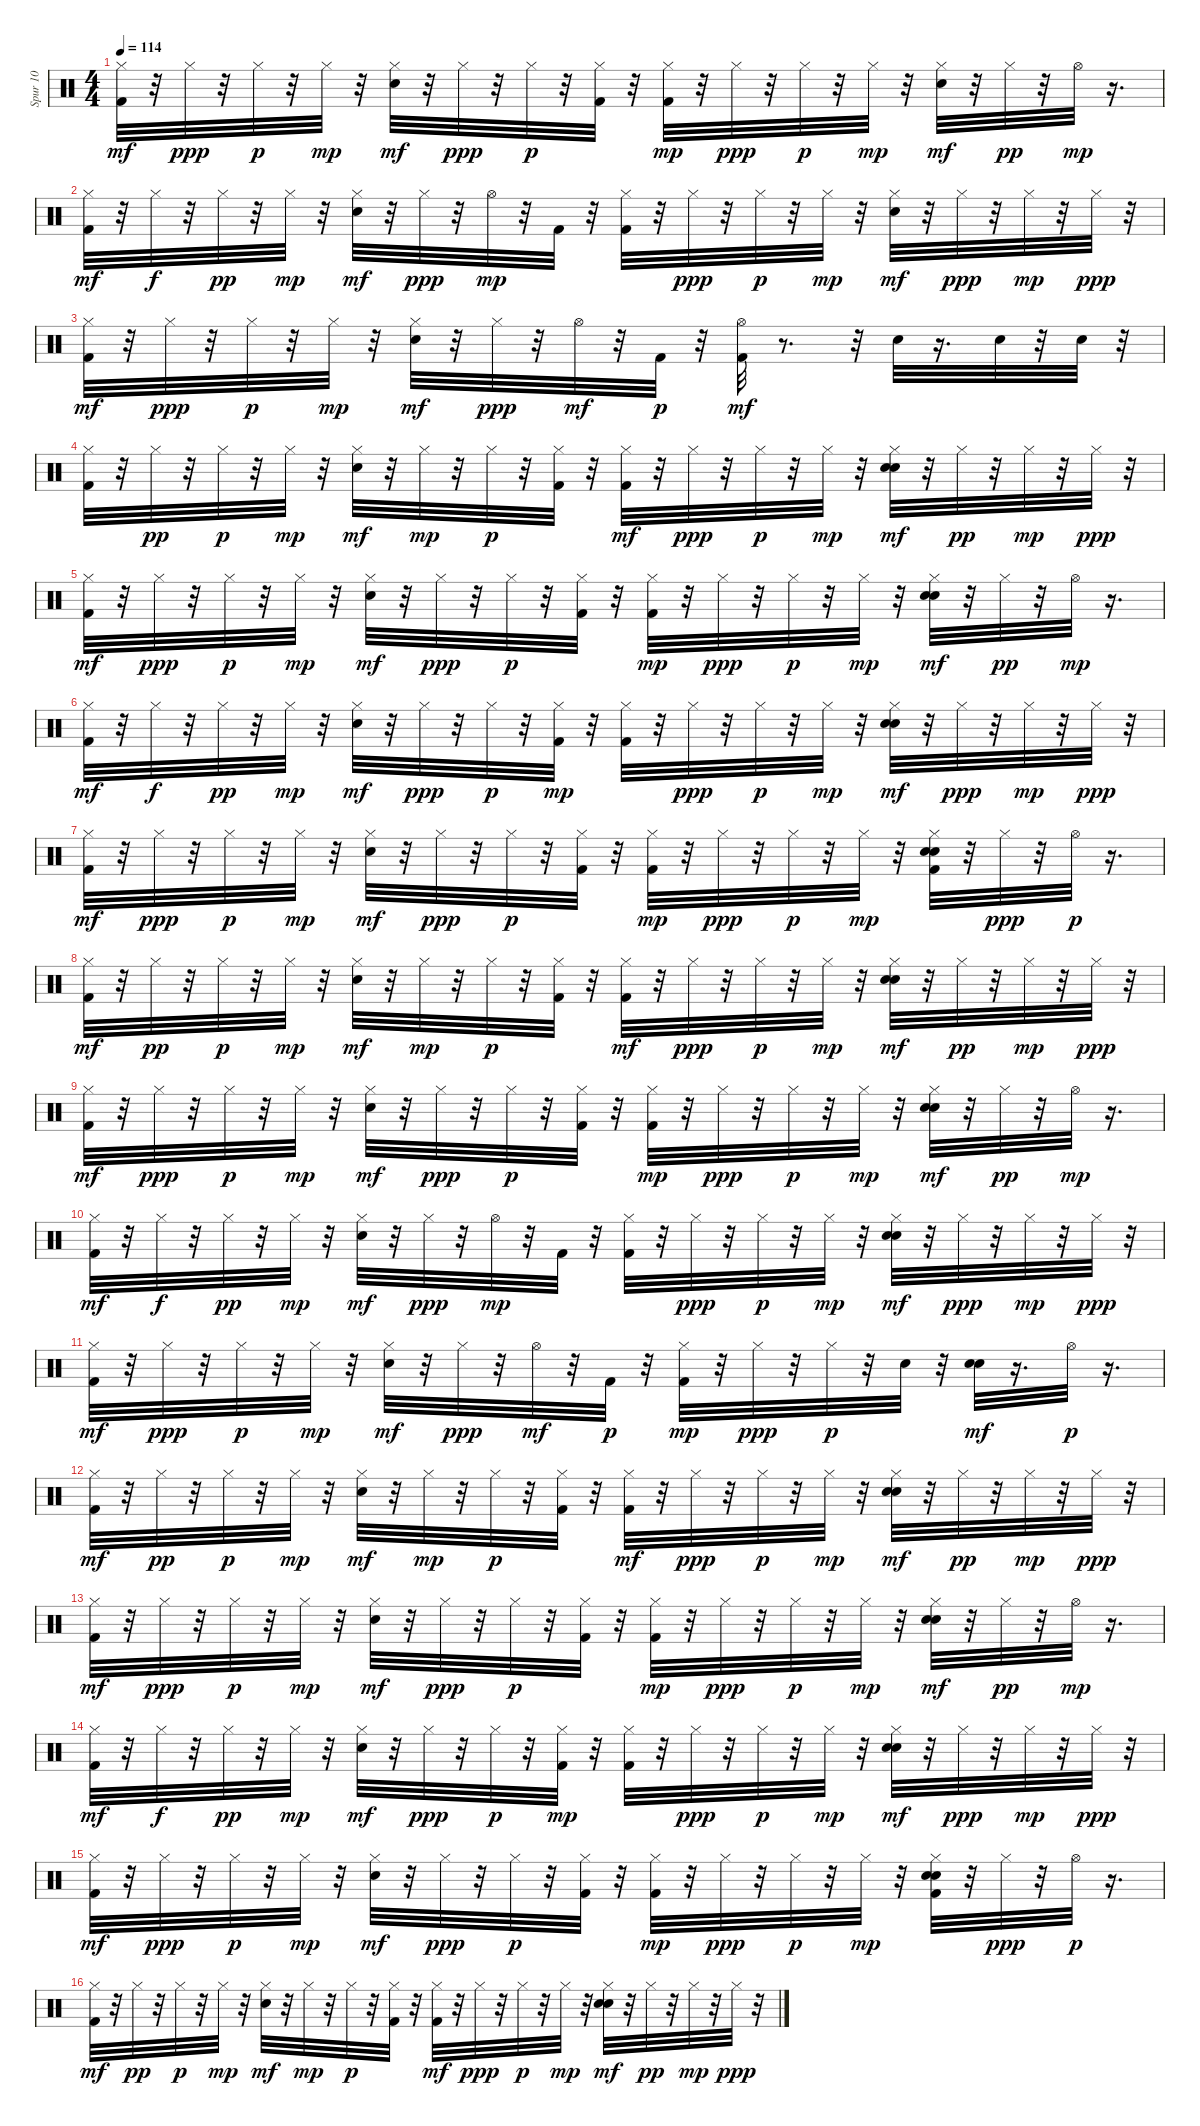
\track ("Spur 10" "Spur 10") {instrument percussion}
\staff {score}
\articulation defaults
\ts (4 4)
\tempo 114
\clef neutral
\ks c
("Hi-Hat (closed)" "Kick (hit) 2").32{dy mf} r.32 "Hi-Hat (closed)".32{dy ppp} r.32 "Hi-Hat (closed)".32{dy p} r.32 "Hi-Hat (closed)".32{dy mp} r.32 ("Hi-Hat (closed)" "Electric Snare (hit)").32{dy mf} r.32 "Hi-Hat (closed)".32{dy ppp} r.32 "Hi-Hat (closed)".32{dy p} r.32 ("Hi-Hat (closed)" "Kick (hit) 2").32 r.32 ("Hi-Hat (closed)" "Kick (hit) 2").32{dy mp} r.32 "Hi-Hat (closed)".32{dy ppp} r.32 "Hi-Hat (closed)".32{dy p} r.32 "Hi-Hat (closed)".32{dy mp} r.32 ("Hi-Hat (closed)" "Electric Snare (hit)").32{dy mf} r.32 "Hi-Hat (closed)".32{dy pp} r.32 "Hi-Hat (open)".32{dy mp} r.16{d} |
("Hi-Hat (closed)" "Kick (hit) 2").32{dy mf} r.32 "Hi-Hat (closed)".32{dy f} r.32 "Hi-Hat (closed)".32{dy pp} r.32 "Hi-Hat (closed)".32{dy mp} r.32 ("Hi-Hat (closed)" "Electric Snare (hit)").32{dy mf} r.32 "Hi-Hat (closed)".32{dy ppp} r.32 "Hi-Hat (open)".32{dy mp} r.32 "Kick (hit) 2".32 r.32 ("Hi-Hat (closed)" "Kick (hit) 2").32 r.32 "Hi-Hat (closed)".32{dy ppp} r.32 "Hi-Hat (closed)".32{dy p} r.32 "Hi-Hat (closed)".32{dy mp} r.32 ("Hi-Hat (closed)" "Electric Snare (hit)").32{dy mf} r.32 "Hi-Hat (closed)".32{dy ppp} r.32 "Hi-Hat (closed)".32{dy mp} r.32 "Hi-Hat (closed)".32{dy ppp} r.32 |
("Hi-Hat (closed)" "Kick (hit) 2").32{dy mf} r.32 "Hi-Hat (closed)".32{dy ppp} r.32 "Hi-Hat (closed)".32{dy p} r.32 "Hi-Hat (closed)".32{dy mp} r.32 ("Hi-Hat (closed)" "Electric Snare (hit)").32{dy mf} r.32 "Hi-Hat (closed)".32{dy ppp} r.32 "Hi-Hat (open)".32{dy mf} r.32 "Kick (hit) 2".32{dy p} r.32 ("Kick (hit) 2" "Hi-Hat (open)").32{dy mf} r.8{d} r.32 "Electric Snare (hit)".32 r.16{d} "Electric Snare (hit)".32 r.32 "Electric Snare (hit)".32 r.32 |
("Hi-Hat (closed)" "Kick (hit) 2").32 r.32 "Hi-Hat (closed)".32{dy pp} r.32 "Hi-Hat (closed)".32{dy p} r.32 "Hi-Hat (closed)".32{dy mp} r.32 ("Hi-Hat (closed)" "Electric Snare (hit)").32{dy mf} r.32 "Hi-Hat (closed)".32{dy mp} r.32 "Hi-Hat (closed)".32{dy p} r.32 ("Hi-Hat (closed)" "Kick (hit) 2").32 r.32 ("Hi-Hat (closed)" "Kick (hit) 2").32{dy mf} r.32 "Hi-Hat (closed)".32{dy ppp} r.32 "Hi-Hat (closed)".32{dy p} r.32 "Hi-Hat (closed)".32{dy mp} r.32 ("Hand Clap (hit)" "Hi-Hat (closed)" "Electric Snare (hit)").32{dy mf} r.32 "Hi-Hat (closed)".32{dy pp} r.32 "Hi-Hat (closed)".32{dy mp} r.32 "Hi-Hat (closed)".32{dy ppp} r.32 |
("Hi-Hat (closed)" "Kick (hit) 2").32{dy mf} r.32 "Hi-Hat (closed)".32{dy ppp} r.32 "Hi-Hat (closed)".32{dy p} r.32 "Hi-Hat (closed)".32{dy mp} r.32 ("Hi-Hat (closed)" "Electric Snare (hit)").32{dy mf} r.32 "Hi-Hat (closed)".32{dy ppp} r.32 "Hi-Hat (closed)".32{dy p} r.32 ("Hi-Hat (closed)" "Kick (hit) 2").32 r.32 ("Hi-Hat (closed)" "Kick (hit) 2").32{dy mp} r.32 "Hi-Hat (closed)".32{dy ppp} r.32 "Hi-Hat (closed)".32{dy p} r.32 "Hi-Hat (closed)".32{dy mp} r.32 ("Hand Clap (hit)" "Hi-Hat (closed)" "Electric Snare (hit)").32{dy mf} r.32 "Hi-Hat (closed)".32{dy pp} r.32 "Hi-Hat (open)".32{dy mp} r.16{d} |
("Hi-Hat (closed)" "Kick (hit) 2").32{dy mf} r.32 "Hi-Hat (closed)".32{dy f} r.32 "Hi-Hat (closed)".32{dy pp} r.32 "Hi-Hat (closed)".32{dy mp} r.32 ("Hi-Hat (closed)" "Electric Snare (hit)").32{dy mf} r.32 "Hi-Hat (closed)".32{dy ppp} r.32 "Hi-Hat (closed)".32{dy p} r.32 ("Hi-Hat (closed)" "Kick (hit) 2").32{dy mp} r.32 ("Hi-Hat (closed)" "Kick (hit) 2").32 r.32 "Hi-Hat (closed)".32{dy ppp} r.32 "Hi-Hat (closed)".32{dy p} r.32 "Hi-Hat (closed)".32{dy mp} r.32 ("Hand Clap (hit)" "Hi-Hat (closed)" "Electric Snare (hit)").32{dy mf} r.32 "Hi-Hat (closed)".32{dy ppp} r.32 "Hi-Hat (closed)".32{dy mp} r.32 "Hi-Hat (closed)".32{dy ppp} r.32 |
("Hi-Hat (closed)" "Kick (hit) 2").32{dy mf} r.32 "Hi-Hat (closed)".32{dy ppp} r.32 "Hi-Hat (closed)".32{dy p} r.32 "Hi-Hat (closed)".32{dy mp} r.32 ("Hi-Hat (closed)" "Electric Snare (hit)").32{dy mf} r.32 "Hi-Hat (closed)".32{dy ppp} r.32 "Hi-Hat (closed)".32{dy p} r.32 ("Hi-Hat (closed)" "Kick (hit) 2").32 r.32 ("Hi-Hat (closed)" "Kick (hit) 2").32{dy mp} r.32 "Hi-Hat (closed)".32{dy ppp} r.32 "Hi-Hat (closed)".32{dy p} r.32 "Hi-Hat (closed)".32{dy mp} r.32 ("Hand Clap (hit)" "Hi-Hat (closed)" "Electric Snare (hit)" "Kick (hit) 2").32 r.32 "Hi-Hat (closed)".32{dy ppp} r.32 "Hi-Hat (open)".32{dy p} r.16{d} |
("Hi-Hat (closed)" "Kick (hit) 2").32{dy mf} r.32 "Hi-Hat (closed)".32{dy pp} r.32 "Hi-Hat (closed)".32{dy p} r.32 "Hi-Hat (closed)".32{dy mp} r.32 ("Hi-Hat (closed)" "Electric Snare (hit)").32{dy mf} r.32 "Hi-Hat (closed)".32{dy mp} r.32 "Hi-Hat (closed)".32{dy p} r.32 ("Hi-Hat (closed)" "Kick (hit) 2").32 r.32 ("Hi-Hat (closed)" "Kick (hit) 2").32{dy mf} r.32 "Hi-Hat (closed)".32{dy ppp} r.32 "Hi-Hat (closed)".32{dy p} r.32 "Hi-Hat (closed)".32{dy mp} r.32 ("Hand Clap (hit)" "Hi-Hat (closed)" "Electric Snare (hit)").32{dy mf} r.32 "Hi-Hat (closed)".32{dy pp} r.32 "Hi-Hat (closed)".32{dy mp} r.32 "Hi-Hat (closed)".32{dy ppp} r.32 |
("Hi-Hat (closed)" "Kick (hit) 2").32{dy mf} r.32 "Hi-Hat (closed)".32{dy ppp} r.32 "Hi-Hat (closed)".32{dy p} r.32 "Hi-Hat (closed)".32{dy mp} r.32 ("Hi-Hat (closed)" "Electric Snare (hit)").32{dy mf} r.32 "Hi-Hat (closed)".32{dy ppp} r.32 "Hi-Hat (closed)".32{dy p} r.32 ("Hi-Hat (closed)" "Kick (hit) 2").32 r.32 ("Hi-Hat (closed)" "Kick (hit) 2").32{dy mp} r.32 "Hi-Hat (closed)".32{dy ppp} r.32 "Hi-Hat (closed)".32{dy p} r.32 "Hi-Hat (closed)".32{dy mp} r.32 ("Hand Clap (hit)" "Hi-Hat (closed)" "Electric Snare (hit)").32{dy mf} r.32 "Hi-Hat (closed)".32{dy pp} r.32 "Hi-Hat (open)".32{dy mp} r.16{d} |
("Hi-Hat (closed)" "Kick (hit) 2").32{dy mf} r.32 "Hi-Hat (closed)".32{dy f} r.32 "Hi-Hat (closed)".32{dy pp} r.32 "Hi-Hat (closed)".32{dy mp} r.32 ("Hi-Hat (closed)" "Electric Snare (hit)").32{dy mf} r.32 "Hi-Hat (closed)".32{dy ppp} r.32 "Hi-Hat (open)".32{dy mp} r.32 "Kick (hit) 2".32 r.32 ("Hi-Hat (closed)" "Kick (hit) 2").32 r.32 "Hi-Hat (closed)".32{dy ppp} r.32 "Hi-Hat (closed)".32{dy p} r.32 "Hi-Hat (closed)".32{dy mp} r.32 ("Hand Clap (hit)" "Hi-Hat (closed)" "Electric Snare (hit)").32{dy mf} r.32 "Hi-Hat (closed)".32{dy ppp} r.32 "Hi-Hat (closed)".32{dy mp} r.32 "Hi-Hat (closed)".32{dy ppp} r.32 |
("Hi-Hat (closed)" "Kick (hit) 2").32{dy mf} r.32 "Hi-Hat (closed)".32{dy ppp} r.32 "Hi-Hat (closed)".32{dy p} r.32 "Hi-Hat (closed)".32{dy mp} r.32 ("Hi-Hat (closed)" "Electric Snare (hit)").32{dy mf} r.32 "Hi-Hat (closed)".32{dy ppp} r.32 "Hi-Hat (open)".32{dy mf} r.32 "Kick (hit) 2".32{dy p} r.32 ("Hi-Hat (closed)" "Kick (hit) 2").32{dy mp} r.32 "Hi-Hat (closed)".32{dy ppp} r.32 "Hi-Hat (closed)".32{dy p} r.32 "Electric Snare (hit)".32 r.32 ("Hand Clap (hit)" "Electric Snare (hit)").32{dy mf} r.16{d} "Hi-Hat (open)".32{dy p} r.16{d} |
("Hi-Hat (closed)" "Kick (hit) 2").32{dy mf} r.32 "Hi-Hat (closed)".32{dy pp} r.32 "Hi-Hat (closed)".32{dy p} r.32 "Hi-Hat (closed)".32{dy mp} r.32 ("Hi-Hat (closed)" "Electric Snare (hit)").32{dy mf} r.32 "Hi-Hat (closed)".32{dy mp} r.32 "Hi-Hat (closed)".32{dy p} r.32 ("Hi-Hat (closed)" "Kick (hit) 2").32 r.32 ("Hi-Hat (closed)" "Kick (hit) 2").32{dy mf} r.32 "Hi-Hat (closed)".32{dy ppp} r.32 "Hi-Hat (closed)".32{dy p} r.32 "Hi-Hat (closed)".32{dy mp} r.32 ("Hand Clap (hit)" "Hi-Hat (closed)" "Electric Snare (hit)").32{dy mf} r.32 "Hi-Hat (closed)".32{dy pp} r.32 "Hi-Hat (closed)".32{dy mp} r.32 "Hi-Hat (closed)".32{dy ppp} r.32 |
("Hi-Hat (closed)" "Kick (hit) 2").32{dy mf} r.32 "Hi-Hat (closed)".32{dy ppp} r.32 "Hi-Hat (closed)".32{dy p} r.32 "Hi-Hat (closed)".32{dy mp} r.32 ("Hi-Hat (closed)" "Electric Snare (hit)").32{dy mf} r.32 "Hi-Hat (closed)".32{dy ppp} r.32 "Hi-Hat (closed)".32{dy p} r.32 ("Hi-Hat (closed)" "Kick (hit) 2").32 r.32 ("Hi-Hat (closed)" "Kick (hit) 2").32{dy mp} r.32 "Hi-Hat (closed)".32{dy ppp} r.32 "Hi-Hat (closed)".32{dy p} r.32 "Hi-Hat (closed)".32{dy mp} r.32 ("Hand Clap (hit)" "Hi-Hat (closed)" "Electric Snare (hit)").32{dy mf} r.32 "Hi-Hat (closed)".32{dy pp} r.32 "Hi-Hat (open)".32{dy mp} r.16{d} |
("Hi-Hat (closed)" "Kick (hit) 2").32{dy mf} r.32 "Hi-Hat (closed)".32{dy f} r.32 "Hi-Hat (closed)".32{dy pp} r.32 "Hi-Hat (closed)".32{dy mp} r.32 ("Hi-Hat (closed)" "Electric Snare (hit)").32{dy mf} r.32 "Hi-Hat (closed)".32{dy ppp} r.32 "Hi-Hat (closed)".32{dy p} r.32 ("Hi-Hat (closed)" "Kick (hit) 2").32{dy mp} r.32 ("Hi-Hat (closed)" "Kick (hit) 2").32 r.32 "Hi-Hat (closed)".32{dy ppp} r.32 "Hi-Hat (closed)".32{dy p} r.32 "Hi-Hat (closed)".32{dy mp} r.32 ("Hand Clap (hit)" "Hi-Hat (closed)" "Electric Snare (hit)").32{dy mf} r.32 "Hi-Hat (closed)".32{dy ppp} r.32 "Hi-Hat (closed)".32{dy mp} r.32 "Hi-Hat (closed)".32{dy ppp} r.32 |
("Hi-Hat (closed)" "Kick (hit) 2").32{dy mf} r.32 "Hi-Hat (closed)".32{dy ppp} r.32 "Hi-Hat (closed)".32{dy p} r.32 "Hi-Hat (closed)".32{dy mp} r.32 ("Hi-Hat (closed)" "Electric Snare (hit)").32{dy mf} r.32 "Hi-Hat (closed)".32{dy ppp} r.32 "Hi-Hat (closed)".32{dy p} r.32 ("Hi-Hat (closed)" "Kick (hit) 2").32 r.32 ("Hi-Hat (closed)" "Kick (hit) 2").32{dy mp} r.32 "Hi-Hat (closed)".32{dy ppp} r.32 "Hi-Hat (closed)".32{dy p} r.32 "Hi-Hat (closed)".32{dy mp} r.32 ("Hand Clap (hit)" "Hi-Hat (closed)" "Electric Snare (hit)" "Kick (hit) 2").32 r.32 "Hi-Hat (closed)".32{dy ppp} r.32 "Hi-Hat (open)".32{dy p} r.16{d} |
("Hi-Hat (closed)" "Kick (hit) 2").32{dy mf} r.32 "Hi-Hat (closed)".32{dy pp} r.32 "Hi-Hat (closed)".32{dy p} r.32 "Hi-Hat (closed)".32{dy mp} r.32 ("Hi-Hat (closed)" "Electric Snare (hit)").32{dy mf} r.32 "Hi-Hat (closed)".32{dy mp} r.32 "Hi-Hat (closed)".32{dy p} r.32 ("Hi-Hat (closed)" "Kick (hit) 2").32 r.32 ("Hi-Hat (closed)" "Kick (hit) 2").32{dy mf} r.32 "Hi-Hat (closed)".32{dy ppp} r.32 "Hi-Hat (closed)".32{dy p} r.32 "Hi-Hat (closed)".32{dy mp} r.32 ("Hand Clap (hit)" "Hi-Hat (closed)" "Electric Snare (hit)").32{dy mf} r.32 "Hi-Hat (closed)".32{dy pp} r.32 "Hi-Hat (closed)".32{dy mp} r.32 "Hi-Hat (closed)".32{dy ppp} r.32
